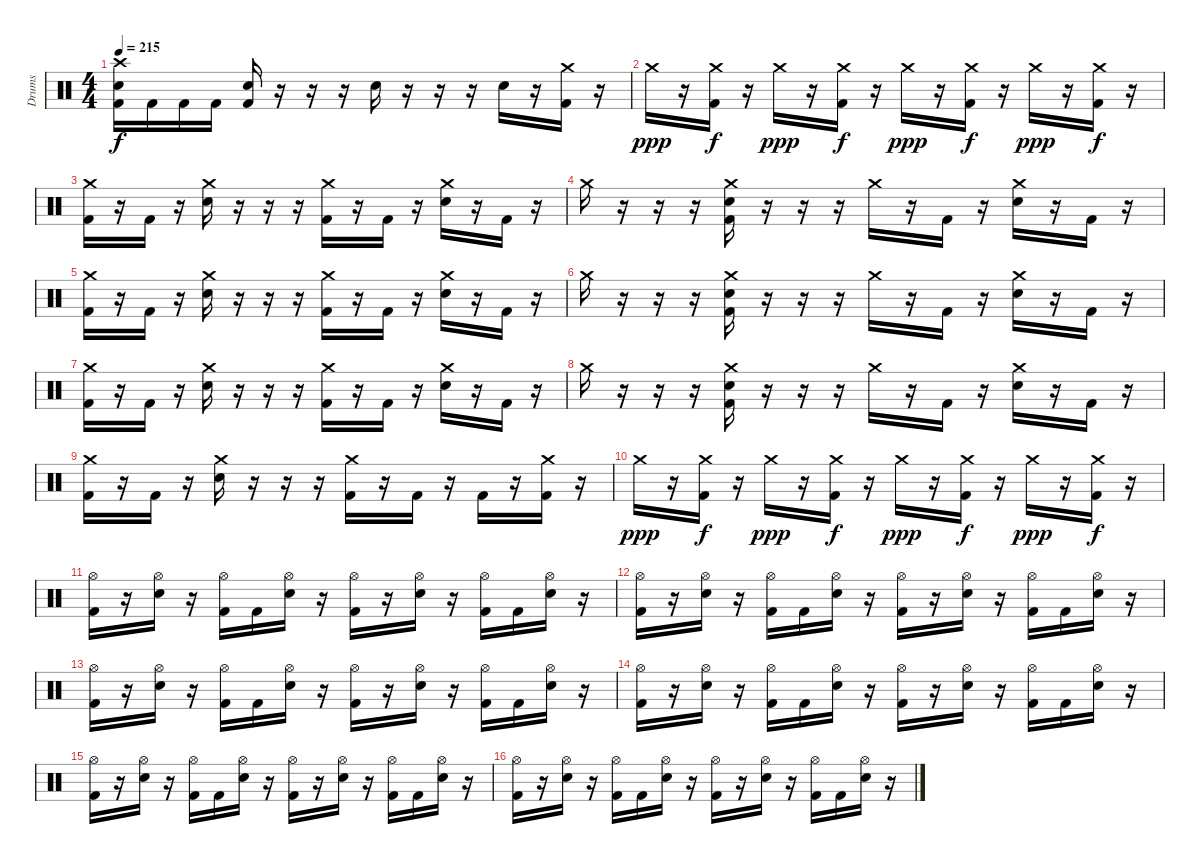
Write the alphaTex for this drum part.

\track ("Drums" "Drums") {instrument percussion}
\staff {score}
\articulation defaults
\ts (4 4)
\tempo 215
\clef neutral
\ks c
("Crash high (hit)" "Snare (hit) 2" "Kick (hit) 2").16{dy f} "Kick (hit) 2".16 "Kick (hit) 2".16 "Kick (hit) 2".16 ("Snare (hit) 2" "Kick (hit) 2").16 r.16 r.16 r.16 "Snare (hit) 2".16 r.16 r.16 r.16 "Snare (hit) 2".16 r.16 ("Crash medium (hit)" "Kick (hit) 2").16 r.16 |
"Crash medium (hit)".16{dy ppp} r.16 ("Crash medium (hit)" "Kick (hit) 2").16{dy f} r.16 "Crash medium (hit)".16{dy ppp} r.16 ("Crash medium (hit)" "Kick (hit) 2").16{dy f} r.16 "Crash medium (hit)".16{dy ppp} r.16 ("Crash medium (hit)" "Kick (hit) 2").16{dy f} r.16 "Crash medium (hit)".16{dy ppp} r.16 ("Crash medium (hit)" "Kick (hit) 2").16{dy f} r.16 |
("Crash medium (hit)" "Kick (hit) 2").16 r.16 "Kick (hit) 2".16 r.16 ("Crash medium (hit)" "Snare (hit) 2").16 r.16 r.16 r.16 ("Crash medium (hit)" "Kick (hit) 2").16 r.16 "Kick (hit) 2".16 r.16 ("Crash medium (hit)" "Snare (hit) 2").16 r.16 "Kick (hit) 2".16 r.16 |
"Crash medium (hit)".16 r.16 r.16 r.16 ("Crash medium (hit)" "Snare (hit) 2" "Kick (hit) 2").16 r.16 r.16 r.16 "Crash medium (hit)".16 r.16 "Kick (hit) 2".16 r.16 ("Crash medium (hit)" "Snare (hit) 2").16 r.16 "Kick (hit) 2".16 r.16 |
("Crash medium (hit)" "Kick (hit) 2").16 r.16 "Kick (hit) 2".16 r.16 ("Crash medium (hit)" "Snare (hit) 2").16 r.16 r.16 r.16 ("Crash medium (hit)" "Kick (hit) 2").16 r.16 "Kick (hit) 2".16 r.16 ("Crash medium (hit)" "Snare (hit) 2").16 r.16 "Kick (hit) 2".16 r.16 |
"Crash medium (hit)".16 r.16 r.16 r.16 ("Crash medium (hit)" "Snare (hit) 2" "Kick (hit) 2").16 r.16 r.16 r.16 "Crash medium (hit)".16 r.16 "Kick (hit) 2".16 r.16 ("Crash medium (hit)" "Snare (hit) 2").16 r.16 "Kick (hit) 2".16 r.16 |
("Crash medium (hit)" "Kick (hit) 2").16 r.16 "Kick (hit) 2".16 r.16 ("Crash medium (hit)" "Snare (hit) 2").16 r.16 r.16 r.16 ("Crash medium (hit)" "Kick (hit) 2").16 r.16 "Kick (hit) 2".16 r.16 ("Crash medium (hit)" "Snare (hit) 2").16 r.16 "Kick (hit) 2".16 r.16 |
"Crash medium (hit)".16 r.16 r.16 r.16 ("Crash medium (hit)" "Snare (hit) 2" "Kick (hit) 2").16 r.16 r.16 r.16 "Crash medium (hit)".16 r.16 "Kick (hit) 2".16 r.16 ("Crash medium (hit)" "Snare (hit) 2").16 r.16 "Kick (hit) 2".16 r.16 |
("Crash medium (hit)" "Kick (hit) 2").16 r.16 "Kick (hit) 2".16 r.16 ("Crash medium (hit)" "Snare (hit) 2").16 r.16 r.16 r.16 ("Crash medium (hit)" "Kick (hit) 2").16 r.16 "Kick (hit) 2".16 r.16 "Kick (hit) 2".16 r.16 ("Crash medium (hit)" "Kick (hit) 2").16 r.16 |
"Crash medium (hit)".16{dy ppp} r.16 ("Crash medium (hit)" "Kick (hit) 2").16{dy f} r.16 "Crash medium (hit)".16{dy ppp} r.16 ("Crash medium (hit)" "Kick (hit) 2").16{dy f} r.16 "Crash medium (hit)".16{dy ppp} r.16 ("Crash medium (hit)" "Kick (hit) 2").16{dy f} r.16 "Crash medium (hit)".16{dy ppp} r.16 ("Crash medium (hit)" "Kick (hit) 2").16{dy f} r.16 |
("Hi-Hat (open)" "Kick (hit) 2").16 r.16 ("Hi-Hat (open)" "Snare (hit) 2").16 r.16 ("Hi-Hat (open)" "Kick (hit) 2").16 "Kick (hit) 2".16 ("Hi-Hat (open)" "Snare (hit) 2").16 r.16 ("Hi-Hat (open)" "Kick (hit) 2").16 r.16 ("Hi-Hat (open)" "Snare (hit) 2").16 r.16 ("Hi-Hat (open)" "Kick (hit) 2").16 "Kick (hit) 2".16 ("Hi-Hat (open)" "Snare (hit) 2").16 r.16 |
("Hi-Hat (open)" "Kick (hit) 2").16 r.16 ("Hi-Hat (open)" "Snare (hit) 2").16 r.16 ("Hi-Hat (open)" "Kick (hit) 2").16 "Kick (hit) 2".16 ("Hi-Hat (open)" "Snare (hit) 2").16 r.16 ("Hi-Hat (open)" "Kick (hit) 2").16 r.16 ("Hi-Hat (open)" "Snare (hit) 2").16 r.16 ("Hi-Hat (open)" "Kick (hit) 2").16 "Kick (hit) 2".16 ("Hi-Hat (open)" "Snare (hit) 2").16 r.16 |
("Hi-Hat (open)" "Kick (hit) 2").16 r.16 ("Hi-Hat (open)" "Snare (hit) 2").16 r.16 ("Hi-Hat (open)" "Kick (hit) 2").16 "Kick (hit) 2".16 ("Hi-Hat (open)" "Snare (hit) 2").16 r.16 ("Hi-Hat (open)" "Kick (hit) 2").16 r.16 ("Hi-Hat (open)" "Snare (hit) 2").16 r.16 ("Hi-Hat (open)" "Kick (hit) 2").16 "Kick (hit) 2".16 ("Hi-Hat (open)" "Snare (hit) 2").16 r.16 |
("Hi-Hat (open)" "Kick (hit) 2").16 r.16 ("Hi-Hat (open)" "Snare (hit) 2").16 r.16 ("Hi-Hat (open)" "Kick (hit) 2").16 "Kick (hit) 2".16 ("Hi-Hat (open)" "Snare (hit) 2").16 r.16 ("Hi-Hat (open)" "Kick (hit) 2").16 r.16 ("Hi-Hat (open)" "Snare (hit) 2").16 r.16 ("Hi-Hat (open)" "Kick (hit) 2").16 "Kick (hit) 2".16 ("Hi-Hat (open)" "Snare (hit) 2").16 r.16 |
("Hi-Hat (open)" "Kick (hit) 2").16 r.16 ("Hi-Hat (open)" "Snare (hit) 2").16 r.16 ("Hi-Hat (open)" "Kick (hit) 2").16 "Kick (hit) 2".16 ("Hi-Hat (open)" "Snare (hit) 2").16 r.16 ("Hi-Hat (open)" "Kick (hit) 2").16 r.16 ("Hi-Hat (open)" "Snare (hit) 2").16 r.16 ("Hi-Hat (open)" "Kick (hit) 2").16 "Kick (hit) 2".16 ("Hi-Hat (open)" "Snare (hit) 2").16 r.16 |
("Hi-Hat (open)" "Kick (hit) 2").16 r.16 ("Hi-Hat (open)" "Snare (hit) 2").16 r.16 ("Hi-Hat (open)" "Kick (hit) 2").16 "Kick (hit) 2".16 ("Hi-Hat (open)" "Snare (hit) 2").16 r.16 ("Hi-Hat (open)" "Kick (hit) 2").16 r.16 ("Hi-Hat (open)" "Snare (hit) 2").16 r.16 ("Hi-Hat (open)" "Kick (hit) 2").16 "Kick (hit) 2".16 ("Hi-Hat (open)" "Snare (hit) 2").16 r.16
